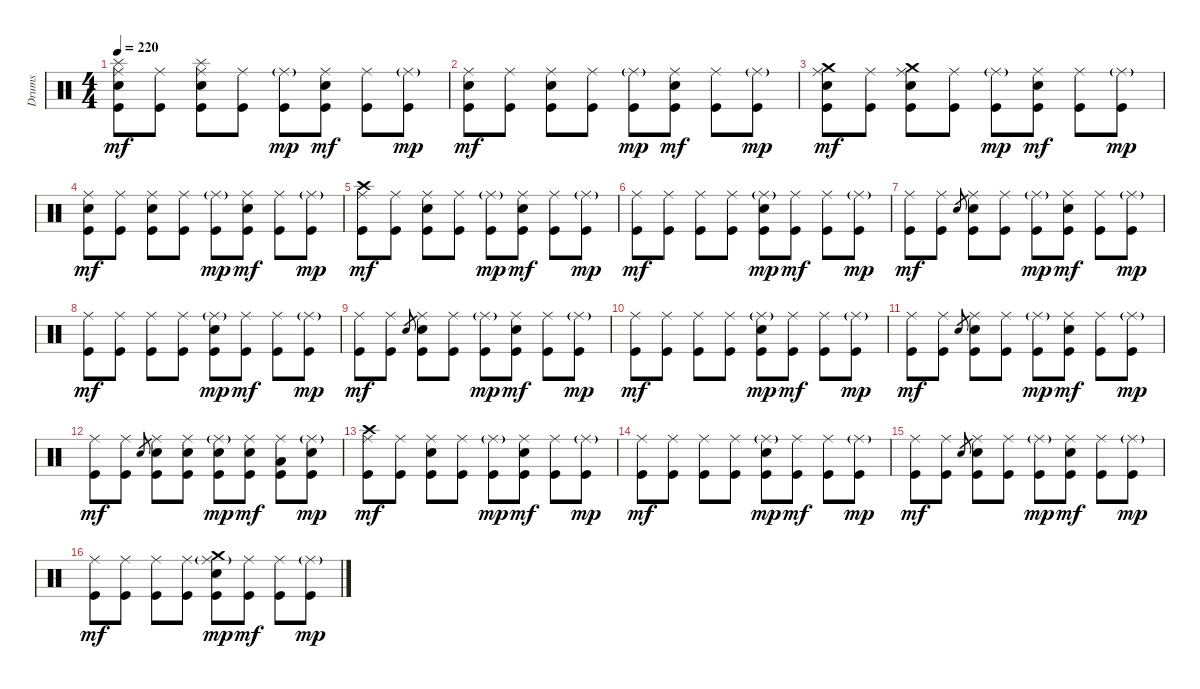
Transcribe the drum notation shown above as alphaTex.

\track ("Drums" "Drums") {instrument percussion}
\staff {score}
\articulation defaults
\ts (4 4)
\tempo 220
\clef neutral
\ks c
("Splash (hit)" "Ride (middle)" "Electric Snare (hit)" "Kick (hit)").8{dy mf} ("Ride (middle)" "Kick (hit)").8 ("Splash (hit)" "Ride (middle)" "Electric Snare (hit)" "Kick (hit)").8 ("Ride (middle)" "Kick (hit)").8 ("Ride (middle)"{g} "Kick (hit)").8{dy mp} ("Ride (middle)" "Electric Snare (hit)" "Kick (hit)").8{dy mf} ("Ride (middle)" "Kick (hit)").8 ("Ride (middle)"{g} "Kick (hit)").8{dy mp} |
("Ride (middle)" "Electric Snare (hit)" "Kick (hit)").8{dy mf} ("Ride (middle)" "Kick (hit)").8 ("Ride (middle)" "Electric Snare (hit)" "Kick (hit)").8 ("Ride (middle)" "Kick (hit)").8 ("Ride (middle)"{g} "Kick (hit)").8{dy mp} ("Ride (middle)" "Electric Snare (hit)" "Kick (hit)").8{dy mf} ("Ride (middle)" "Kick (hit)").8 ("Ride (middle)"{g} "Kick (hit)").8{dy mp} |
("Crash medium (hit)" "Ride (middle)" "Electric Snare (hit)" "Kick (hit)").8{dy mf} ("Ride (middle)" "Kick (hit)").8 ("Crash medium (hit)" "Ride (middle)" "Electric Snare (hit)" "Kick (hit)").8 ("Ride (middle)" "Kick (hit)").8 ("Ride (middle)"{g} "Kick (hit)").8{dy mp} ("Ride (middle)" "Electric Snare (hit)" "Kick (hit)").8{dy mf} ("Ride (middle)" "Kick (hit)").8 ("Ride (middle)"{g} "Kick (hit)").8{dy mp} |
("Ride (middle)" "Electric Snare (hit)" "Kick (hit)").8{dy mf} ("Ride (middle)" "Kick (hit)").8 ("Ride (middle)" "Electric Snare (hit)" "Kick (hit)").8 ("Ride (middle)" "Kick (hit)").8 ("Ride (middle)"{g} "Kick (hit)").8{dy mp} ("Ride (middle)" "Electric Snare (hit)" "Kick (hit)").8{dy mf} ("Ride (middle)" "Kick (hit)").8 ("Ride (middle)"{g} "Kick (hit)").8{dy mp} |
("Crash high (hit)" "Ride (middle)" "Kick (hit)").8{dy mf} ("Ride (middle)" "Kick (hit)").8 ("Ride (middle)" "Electric Snare (hit)" "Kick (hit)").8 ("Ride (middle)" "Kick (hit)").8 ("Ride (middle)"{g} "Kick (hit)").8{dy mp} ("Ride (middle)" "Electric Snare (hit)" "Kick (hit)").8{dy mf} ("Ride (middle)" "Kick (hit)").8 ("Ride (middle)"{g} "Kick (hit)").8{dy mp} |
("Ride (middle)" "Kick (hit)").8{dy mf} ("Ride (middle)" "Kick (hit)").8 ("Ride (middle)" "Kick (hit)").8 ("Ride (middle)" "Kick (hit)").8 ("Ride (middle)"{g} "Electric Snare (hit)" "Kick (hit)").8{dy mp} ("Ride (middle)" "Kick (hit)").8{dy mf} ("Ride (middle)" "Kick (hit)").8 ("Ride (middle)"{g} "Kick (hit)").8{dy mp} |
("Ride (middle)" "Kick (hit)").8{dy mf} ("Ride (middle)" "Kick (hit)").8 "Electric Snare (hit)".8{gr} ("Ride (middle)" "Electric Snare (hit)" "Kick (hit)").8 ("Ride (middle)" "Kick (hit)").8 ("Ride (middle)"{g} "Kick (hit)").8{dy mp} ("Ride (middle)" "Electric Snare (hit)" "Kick (hit)").8{dy mf} ("Ride (middle)" "Kick (hit)").8 ("Ride (middle)"{g} "Kick (hit)").8{dy mp} |
("Ride (middle)" "Kick (hit)").8{dy mf} ("Ride (middle)" "Kick (hit)").8 ("Ride (middle)" "Kick (hit)").8 ("Ride (middle)" "Kick (hit)").8 ("Ride (middle)"{g} "Electric Snare (hit)" "Kick (hit)").8{dy mp} ("Ride (middle)" "Kick (hit)").8{dy mf} ("Ride (middle)" "Kick (hit)").8 ("Ride (middle)"{g} "Kick (hit)").8{dy mp} |
("Ride (middle)" "Kick (hit)").8{dy mf} ("Ride (middle)" "Kick (hit)").8 "Electric Snare (hit)".8{gr} ("Ride (middle)" "Electric Snare (hit)" "Kick (hit)").8 ("Ride (middle)" "Kick (hit)").8 ("Ride (middle)"{g} "Kick (hit)").8{dy mp} ("Ride (middle)" "Electric Snare (hit)" "Kick (hit)").8{dy mf} ("Ride (middle)" "Kick (hit)").8 ("Ride (middle)"{g} "Kick (hit)").8{dy mp} |
("Ride (middle)" "Kick (hit)").8{dy mf} ("Ride (middle)" "Kick (hit)").8 ("Ride (middle)" "Kick (hit)").8 ("Ride (middle)" "Kick (hit)").8 ("Ride (middle)"{g} "Electric Snare (hit)" "Kick (hit)").8{dy mp} ("Ride (middle)" "Kick (hit)").8{dy mf} ("Ride (middle)" "Kick (hit)").8 ("Ride (middle)"{g} "Kick (hit)").8{dy mp} |
("Ride (middle)" "Kick (hit)").8{dy mf} ("Ride (middle)" "Kick (hit)").8 "Electric Snare (hit)".8{gr} ("Ride (middle)" "Electric Snare (hit)" "Kick (hit)").8 ("Ride (middle)" "Kick (hit)").8 ("Ride (middle)"{g} "Kick (hit)").8{dy mp} ("Ride (middle)" "Electric Snare (hit)" "Kick (hit)").8{dy mf} ("Ride (middle)" "Kick (hit)").8 ("Ride (middle)"{g} "Kick (hit)").8{dy mp} |
("Ride (middle)" "Kick (hit)").8{dy mf} ("Ride (middle)" "Kick (hit)").8 "Electric Snare (hit)".8{gr} ("Ride (middle)" "Electric Snare (hit)" "Kick (hit)").8 ("Ride (middle)" "Electric Snare (hit)" "Kick (hit)").8 ("Ride (middle)"{g} "Electric Snare (hit)" "Kick (hit)").8{dy mp} ("Ride (middle)" "Electric Snare (hit)" "Kick (hit)").8{dy mf} ("Ride (middle)" "Low Tom (hit)" "Kick (hit)").8 ("Ride (middle)"{g} "Electric Snare (hit)" "Kick (hit)").8{dy mp} |
("Crash high (hit)" "Ride (middle)" "Kick (hit)").8{dy mf} ("Ride (middle)" "Kick (hit)").8 ("Ride (middle)" "Electric Snare (hit)" "Kick (hit)").8 ("Ride (middle)" "Kick (hit)").8 ("Ride (middle)"{g} "Kick (hit)").8{dy mp} ("Ride (middle)" "Electric Snare (hit)" "Kick (hit)").8{dy mf} ("Ride (middle)" "Kick (hit)").8 ("Ride (middle)"{g} "Kick (hit)").8{dy mp} |
("Ride (middle)" "Kick (hit)").8{dy mf} ("Ride (middle)" "Kick (hit)").8 ("Ride (middle)" "Kick (hit)").8 ("Ride (middle)" "Kick (hit)").8 ("Ride (middle)"{g} "Electric Snare (hit)" "Kick (hit)").8{dy mp} ("Ride (middle)" "Kick (hit)").8{dy mf} ("Ride (middle)" "Kick (hit)").8 ("Ride (middle)"{g} "Kick (hit)").8{dy mp} |
("Ride (middle)" "Kick (hit)").8{dy mf} ("Ride (middle)" "Kick (hit)").8 "Electric Snare (hit)".8{gr} ("Ride (middle)" "Electric Snare (hit)" "Kick (hit)").8 ("Ride (middle)" "Kick (hit)").8 ("Ride (middle)"{g} "Kick (hit)").8{dy mp} ("Ride (middle)" "Electric Snare (hit)" "Kick (hit)").8{dy mf} ("Ride (middle)" "Kick (hit)").8 ("Ride (middle)"{g} "Kick (hit)").8{dy mp} |
("Ride (middle)" "Kick (hit)").8{dy mf} ("Ride (middle)" "Kick (hit)").8 ("Ride (middle)" "Kick (hit)").8 ("Ride (middle)" "Kick (hit)").8 ("Crash medium (hit)" "Ride (middle)"{g} "Electric Snare (hit)" "Kick (hit)").8{dy mp} ("Ride (middle)" "Kick (hit)").8{dy mf} ("Ride (middle)" "Kick (hit)").8 ("Ride (middle)"{g} "Kick (hit)").8{dy mp}
